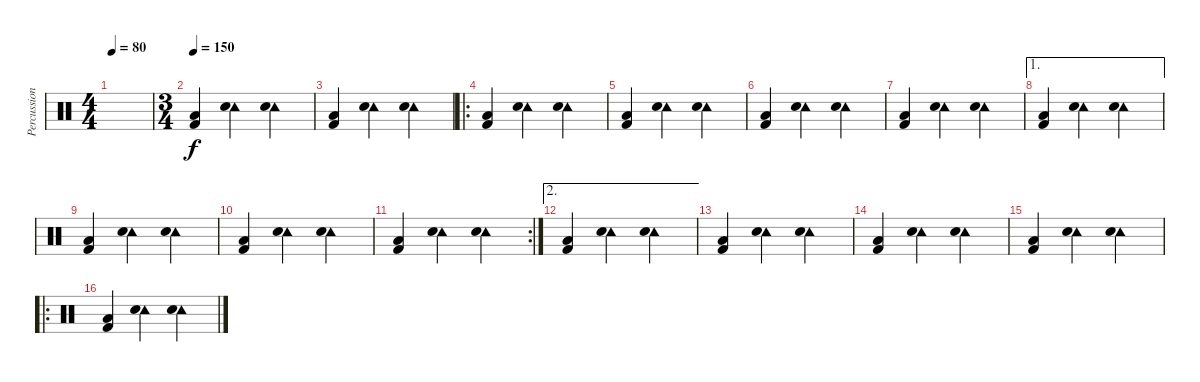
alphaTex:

\track ("Percussion" "Percussion") {instrument percussion}
\staff {score}
\articulation defaults
\ts (4 4)
\tempo 80
\clef neutral
\ks c
|
\ts (3 4)
\tempo 150
("Low Floor Tom (hit)" "Kick (hit) 2").4 ("Tambourine (hit)" "Snare (hit) 2").4 ("Tambourine (hit)" "Snare (hit) 2").4 |
("Low Floor Tom (hit)" "Kick (hit) 2").4 ("Tambourine (hit)" "Snare (hit) 2").4 ("Tambourine (hit)" "Snare (hit) 2").4 |
\ro
("Low Floor Tom (hit)" "Kick (hit) 2").4 ("Tambourine (hit)" "Snare (hit) 2").4 ("Tambourine (hit)" "Snare (hit) 2").4 |
("Low Floor Tom (hit)" "Kick (hit) 2").4 ("Tambourine (hit)" "Snare (hit) 2").4 ("Tambourine (hit)" "Snare (hit) 2").4 |
("Low Floor Tom (hit)" "Kick (hit) 2").4 ("Tambourine (hit)" "Snare (hit) 2").4 ("Tambourine (hit)" "Snare (hit) 2").4 |
("Low Floor Tom (hit)" "Kick (hit) 2").4 ("Tambourine (hit)" "Snare (hit) 2").4 ("Tambourine (hit)" "Snare (hit) 2").4 |
\ae 1
("Low Floor Tom (hit)" "Kick (hit) 2").4 ("Tambourine (hit)" "Snare (hit) 2").4 ("Tambourine (hit)" "Snare (hit) 2").4 |
("Low Floor Tom (hit)" "Kick (hit) 2").4 ("Tambourine (hit)" "Snare (hit) 2").4 ("Tambourine (hit)" "Snare (hit) 2").4 |
("Low Floor Tom (hit)" "Kick (hit) 2").4 ("Tambourine (hit)" "Snare (hit) 2").4 ("Tambourine (hit)" "Snare (hit) 2").4 |
\rc 2
("Low Floor Tom (hit)" "Kick (hit) 2").4 ("Tambourine (hit)" "Snare (hit) 2").4 ("Tambourine (hit)" "Snare (hit) 2").4 |
\ae 2
("Low Floor Tom (hit)" "Kick (hit) 2").4 ("Tambourine (hit)" "Snare (hit) 2").4 ("Tambourine (hit)" "Snare (hit) 2").4 |
("Low Floor Tom (hit)" "Kick (hit) 2").4 ("Tambourine (hit)" "Snare (hit) 2").4 ("Tambourine (hit)" "Snare (hit) 2").4 |
("Low Floor Tom (hit)" "Kick (hit) 2").4 ("Tambourine (hit)" "Snare (hit) 2").4 ("Tambourine (hit)" "Snare (hit) 2").4 |
("Low Floor Tom (hit)" "Kick (hit) 2").4 ("Tambourine (hit)" "Snare (hit) 2").4 ("Tambourine (hit)" "Snare (hit) 2").4 |
\ro
("Low Floor Tom (hit)" "Kick (hit) 2").4 ("Tambourine (hit)" "Snare (hit) 2").4 ("Tambourine (hit)" "Snare (hit) 2").4
